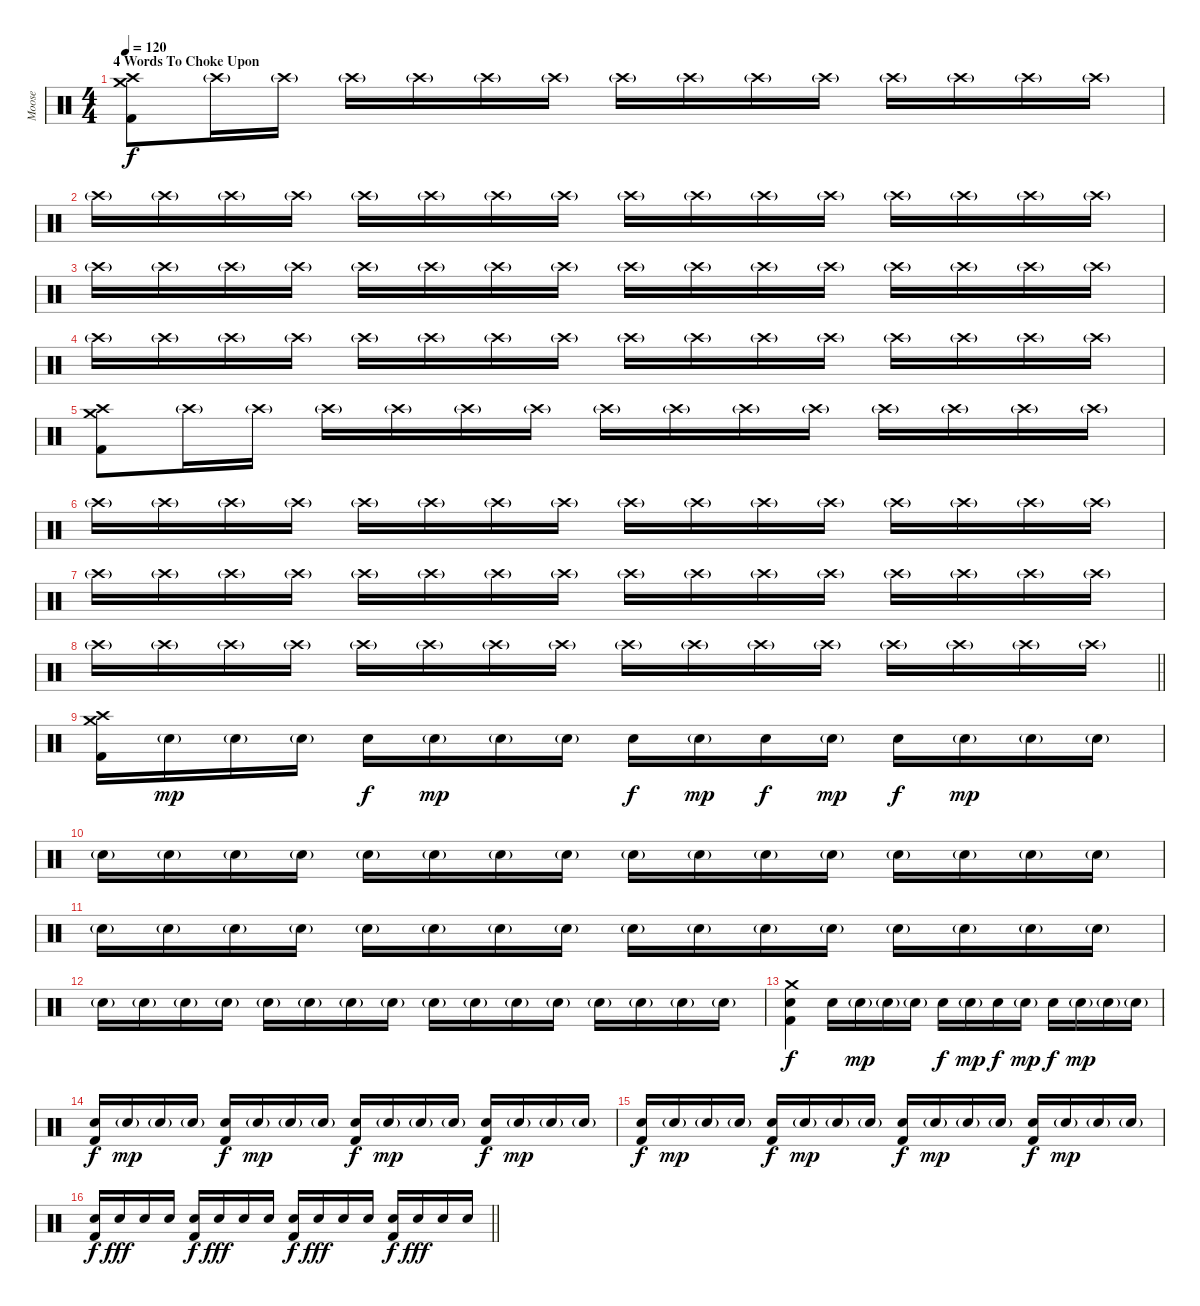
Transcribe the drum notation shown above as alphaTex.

\track ("Moose" "Moose") {instrument percussion}
\staff {score}
\articulation defaults
\ts (4 4)
\section ("" "4 Words To Choke Upon")
\tempo 120
\tempo 149
\tempo 120
\clef neutral
\ks c
("Crash high (hit)" "Crash medium (hit)" "Kick (hit) 2").8{dy f} "Crash high (hit)"{g}.16 "Crash high (hit)"{g}.16 "Crash high (hit)"{g}.16 "Crash high (hit)"{g}.16 "Crash high (hit)"{g}.16 "Crash high (hit)"{g}.16 "Crash high (hit)"{g}.16 "Crash high (hit)"{g}.16 "Crash high (hit)"{g}.16 "Crash high (hit)"{g}.16 "Crash high (hit)"{g}.16 "Crash high (hit)"{g}.16 "Crash high (hit)"{g}.16 "Crash high (hit)"{g}.16 |
"Crash high (hit)"{g}.16 "Crash high (hit)"{g}.16 "Crash high (hit)"{g}.16 "Crash high (hit)"{g}.16 "Crash high (hit)"{g}.16 "Crash high (hit)"{g}.16 "Crash high (hit)"{g}.16 "Crash high (hit)"{g}.16 "Crash high (hit)"{g}.16 "Crash high (hit)"{g}.16 "Crash high (hit)"{g}.16 "Crash high (hit)"{g}.16 "Crash high (hit)"{g}.16 "Crash high (hit)"{g}.16 "Crash high (hit)"{g}.16 "Crash high (hit)"{g}.16 |
"Crash high (hit)"{g}.16 "Crash high (hit)"{g}.16 "Crash high (hit)"{g}.16 "Crash high (hit)"{g}.16 "Crash high (hit)"{g}.16 "Crash high (hit)"{g}.16 "Crash high (hit)"{g}.16 "Crash high (hit)"{g}.16 "Crash high (hit)"{g}.16 "Crash high (hit)"{g}.16 "Crash high (hit)"{g}.16 "Crash high (hit)"{g}.16 "Crash high (hit)"{g}.16 "Crash high (hit)"{g}.16 "Crash high (hit)"{g}.16 "Crash high (hit)"{g}.16 |
"Crash high (hit)"{g}.16 "Crash high (hit)"{g}.16 "Crash high (hit)"{g}.16 "Crash high (hit)"{g}.16 "Crash high (hit)"{g}.16 "Crash high (hit)"{g}.16 "Crash high (hit)"{g}.16 "Crash high (hit)"{g}.16 "Crash high (hit)"{g}.16 "Crash high (hit)"{g}.16 "Crash high (hit)"{g}.16 "Crash high (hit)"{g}.16 "Crash high (hit)"{g}.16 "Crash high (hit)"{g}.16 "Crash high (hit)"{g}.16 "Crash high (hit)"{g}.16 |
("Crash high (hit)" "Crash medium (hit)" "Kick (hit) 2").8 "Crash high (hit)"{g}.16 "Crash high (hit)"{g}.16 "Crash high (hit)"{g}.16 "Crash high (hit)"{g}.16 "Crash high (hit)"{g}.16 "Crash high (hit)"{g}.16 "Crash high (hit)"{g}.16 "Crash high (hit)"{g}.16 "Crash high (hit)"{g}.16 "Crash high (hit)"{g}.16 "Crash high (hit)"{g}.16 "Crash high (hit)"{g}.16 "Crash high (hit)"{g}.16 "Crash high (hit)"{g}.16 |
"Crash high (hit)"{g}.16 "Crash high (hit)"{g}.16 "Crash high (hit)"{g}.16 "Crash high (hit)"{g}.16 "Crash high (hit)"{g}.16 "Crash high (hit)"{g}.16 "Crash high (hit)"{g}.16 "Crash high (hit)"{g}.16 "Crash high (hit)"{g}.16 "Crash high (hit)"{g}.16 "Crash high (hit)"{g}.16 "Crash high (hit)"{g}.16 "Crash high (hit)"{g}.16 "Crash high (hit)"{g}.16 "Crash high (hit)"{g}.16 "Crash high (hit)"{g}.16 |
"Crash high (hit)"{g}.16 "Crash high (hit)"{g}.16 "Crash high (hit)"{g}.16 "Crash high (hit)"{g}.16 "Crash high (hit)"{g}.16 "Crash high (hit)"{g}.16 "Crash high (hit)"{g}.16 "Crash high (hit)"{g}.16 "Crash high (hit)"{g}.16 "Crash high (hit)"{g}.16 "Crash high (hit)"{g}.16 "Crash high (hit)"{g}.16 "Crash high (hit)"{g}.16 "Crash high (hit)"{g}.16 "Crash high (hit)"{g}.16 "Crash high (hit)"{g}.16 |
\barLineRight lightlight "Crash high (hit)"{g}.16 "Crash high (hit)"{g}.16 "Crash high (hit)"{g}.16 "Crash high (hit)"{g}.16 "Crash high (hit)"{g}.16 "Crash high (hit)"{g}.16 "Crash high (hit)"{g}.16 "Crash high (hit)"{g}.16 "Crash high (hit)"{g}.16 "Crash high (hit)"{g}.16 "Crash high (hit)"{g}.16 "Crash high (hit)"{g}.16 "Crash high (hit)"{g}.16 "Crash high (hit)"{g}.16 "Crash high (hit)"{g}.16 "Crash high (hit)"{g}.16
|
("Crash high (hit)" "Crash medium (hit)" "Kick (hit) 2").16 "Electric Snare (hit)"{g}.16{dy mp} "Electric Snare (hit)"{g}.16 "Electric Snare (hit)"{g}.16 "Electric Snare (hit)".16{dy f} "Electric Snare (hit)"{g}.16{dy mp} "Electric Snare (hit)"{g}.16 "Electric Snare (hit)"{g}.16 "Electric Snare (hit)".16{dy f} "Electric Snare (hit)"{g}.16{dy mp} "Electric Snare (hit)".16{dy f} "Electric Snare (hit)"{g}.16{dy mp} "Electric Snare (hit)".16{dy f} "Electric Snare (hit)"{g}.16{dy mp} "Electric Snare (hit)"{g}.16 "Electric Snare (hit)"{g}.16 |
"Electric Snare (hit)"{g}.16 "Electric Snare (hit)"{g}.16 "Electric Snare (hit)"{g}.16 "Electric Snare (hit)"{g}.16 "Electric Snare (hit)"{g}.16 "Electric Snare (hit)"{g}.16 "Electric Snare (hit)"{g}.16 "Electric Snare (hit)"{g}.16 "Electric Snare (hit)"{g}.16 "Electric Snare (hit)"{g}.16 "Electric Snare (hit)"{g}.16 "Electric Snare (hit)"{g}.16 "Electric Snare (hit)"{g}.16 "Electric Snare (hit)"{g}.16 "Electric Snare (hit)"{g}.16 "Electric Snare (hit)"{g}.16 |
"Electric Snare (hit)"{g}.16 "Electric Snare (hit)"{g}.16 "Electric Snare (hit)"{g}.16 "Electric Snare (hit)"{g}.16 "Electric Snare (hit)"{g}.16 "Electric Snare (hit)"{g}.16 "Electric Snare (hit)"{g}.16 "Electric Snare (hit)"{g}.16 "Electric Snare (hit)"{g}.16 "Electric Snare (hit)"{g}.16 "Electric Snare (hit)"{g}.16 "Electric Snare (hit)"{g}.16 "Electric Snare (hit)"{g}.16 "Electric Snare (hit)"{g}.16 "Electric Snare (hit)"{g}.16 "Electric Snare (hit)"{g}.16 |
"Electric Snare (hit)"{g}.16 "Electric Snare (hit)"{g}.16 "Electric Snare (hit)"{g}.16 "Electric Snare (hit)"{g}.16 "Electric Snare (hit)"{g}.16 "Electric Snare (hit)"{g}.16 "Electric Snare (hit)"{g}.16 "Electric Snare (hit)"{g}.16 "Electric Snare (hit)"{g}.16 "Electric Snare (hit)"{g}.16 "Electric Snare (hit)"{g}.16 "Electric Snare (hit)"{g}.16 "Electric Snare (hit)"{g}.16 "Electric Snare (hit)"{g}.16 "Electric Snare (hit)"{g}.16 "Electric Snare (hit)"{g}.16 |
("Crash medium (hit)" "Electric Snare (hit)" "Kick (hit) 2").4{dy f} "Electric Snare (hit)".16 "Electric Snare (hit)"{g}.16{dy mp} "Electric Snare (hit)"{g}.16 "Electric Snare (hit)"{g}.16 "Electric Snare (hit)".16{dy f} "Electric Snare (hit)"{g}.16{dy mp} "Electric Snare (hit)".16{dy f} "Electric Snare (hit)"{g}.16{dy mp} "Electric Snare (hit)".16{dy f} "Electric Snare (hit)"{g}.16{dy mp} "Electric Snare (hit)"{g}.16 "Electric Snare (hit)"{g}.16 |
("Electric Snare (hit)" "Kick (hit) 2").16{dy f} "Electric Snare (hit)"{g}.16{dy mp} "Electric Snare (hit)"{g}.16 "Electric Snare (hit)"{g}.16 ("Electric Snare (hit)" "Kick (hit) 2").16{dy f} "Electric Snare (hit)"{g}.16{dy mp} "Electric Snare (hit)"{g}.16 "Electric Snare (hit)"{g}.16 ("Electric Snare (hit)" "Kick (hit) 2").16{dy f} "Electric Snare (hit)"{g}.16{dy mp} "Electric Snare (hit)"{g}.16 "Electric Snare (hit)"{g}.16 ("Electric Snare (hit)" "Kick (hit) 2").16{dy f} "Electric Snare (hit)"{g}.16{dy mp} "Electric Snare (hit)"{g}.16 "Electric Snare (hit)"{g}.16 |
("Electric Snare (hit)" "Kick (hit) 2").16{dy f} "Electric Snare (hit)"{g}.16{dy mp} "Electric Snare (hit)"{g}.16 "Electric Snare (hit)"{g}.16 ("Electric Snare (hit)" "Kick (hit) 2").16{dy f} "Electric Snare (hit)"{g}.16{dy mp} "Electric Snare (hit)"{g}.16 "Electric Snare (hit)"{g}.16 ("Electric Snare (hit)" "Kick (hit) 2").16{dy f} "Electric Snare (hit)"{g}.16{dy mp} "Electric Snare (hit)"{g}.16 "Electric Snare (hit)"{g}.16 ("Electric Snare (hit)" "Kick (hit) 2").16{dy f} "Electric Snare (hit)"{g}.16{dy mp} "Electric Snare (hit)"{g}.16 "Electric Snare (hit)"{g}.16 |
\barLineRight lightlight
("Electric Snare (hit)" "Kick (hit) 2").16{dy f} "Electric Snare (hit)".16{dy fff} "Electric Snare (hit)".16 "Electric Snare (hit)".16 ("Electric Snare (hit)" "Kick (hit) 2").16{dy f} "Electric Snare (hit)".16{dy fff} "Electric Snare (hit)".16 "Electric Snare (hit)".16 ("Electric Snare (hit)" "Kick (hit) 2").16{dy f} "Electric Snare (hit)".16{dy fff} "Electric Snare (hit)".16 "Electric Snare (hit)".16 ("Electric Snare (hit)" "Kick (hit) 2").16{dy f} "Electric Snare (hit)".16{dy fff} "Electric Snare (hit)".16 "Electric Snare (hit)".16
